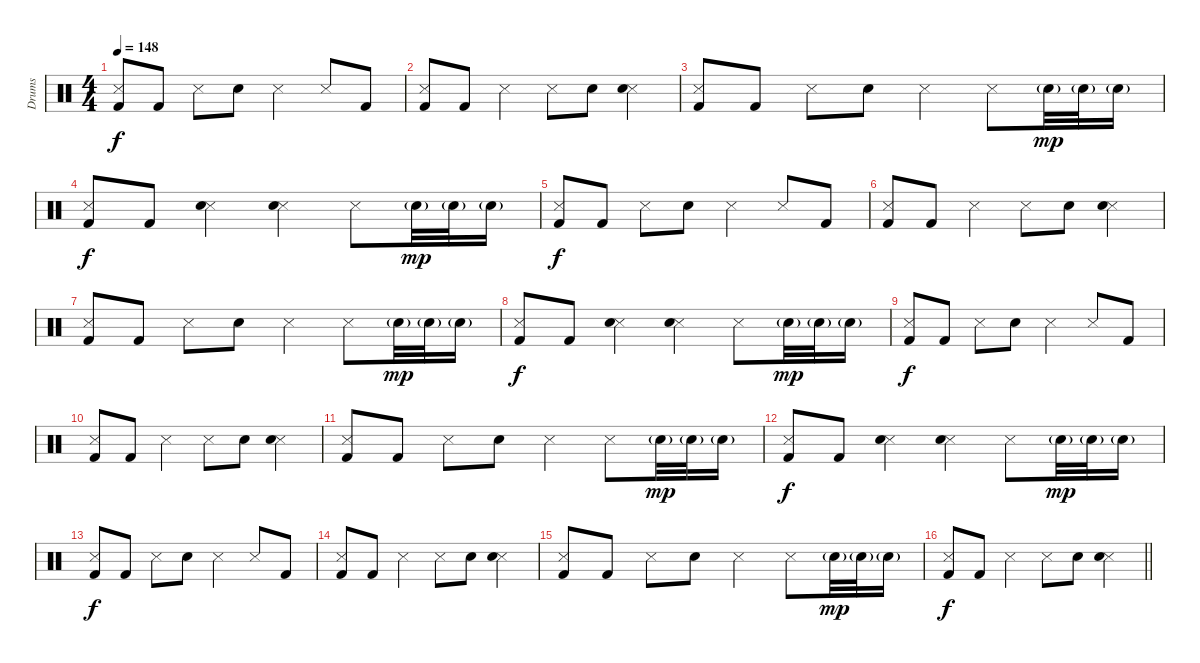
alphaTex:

\track ("Drums" "Drums") {instrument percussion}
\staff {score}
\articulation defaults
\ts (4 4)
\tempo 148
\clef neutral
\ks c
("Snare (side stick) 3" "Kick (hit) 2").8{dy f} "Kick (hit) 2".8 "Snare (side stick) 3".8 "Electric Snare (hit)".8 "Snare (side stick) 3".4 "Snare (side stick) 3".8 "Kick (hit) 2".8 |
("Snare (side stick) 3" "Kick (hit) 2").8 "Kick (hit) 2".8 "Snare (side stick) 3".4 "Snare (side stick) 3".8 "Electric Snare (hit)".8 ("Snare (side stick) 3" "Electric Snare (hit)").4 |
("Snare (side stick) 3" "Kick (hit) 2").8 "Kick (hit) 2".8 "Snare (side stick) 3".8 "Electric Snare (hit)".8 "Snare (side stick) 3".4 "Snare (side stick) 3".8 "Electric Snare (hit)"{g}.32{dy mp} "Electric Snare (hit)"{g}.32 "Electric Snare (hit)"{g}.16 |
("Snare (side stick) 3" "Kick (hit) 2").8{dy f} "Kick (hit) 2".8 ("Snare (side stick) 3" "Electric Snare (hit)").4 ("Snare (side stick) 3" "Electric Snare (hit)").4 "Snare (side stick) 3".8 "Electric Snare (hit)"{g}.32{dy mp} "Electric Snare (hit)"{g}.32 "Electric Snare (hit)"{g}.16 |
("Snare (side stick) 3" "Kick (hit) 2").8{dy f} "Kick (hit) 2".8 "Snare (side stick) 3".8 "Electric Snare (hit)".8 "Snare (side stick) 3".4 "Snare (side stick) 3".8 "Kick (hit) 2".8 |
("Snare (side stick) 3" "Kick (hit) 2").8 "Kick (hit) 2".8 "Snare (side stick) 3".4 "Snare (side stick) 3".8 "Electric Snare (hit)".8 ("Snare (side stick) 3" "Electric Snare (hit)").4 |
("Snare (side stick) 3" "Kick (hit) 2").8 "Kick (hit) 2".8 "Snare (side stick) 3".8 "Electric Snare (hit)".8 "Snare (side stick) 3".4 "Snare (side stick) 3".8 "Electric Snare (hit)"{g}.32{dy mp} "Electric Snare (hit)"{g}.32 "Electric Snare (hit)"{g}.16 |
("Snare (side stick) 3" "Kick (hit) 2").8{dy f} "Kick (hit) 2".8 ("Snare (side stick) 3" "Electric Snare (hit)").4 ("Snare (side stick) 3" "Electric Snare (hit)").4 "Snare (side stick) 3".8 "Electric Snare (hit)"{g}.32{dy mp} "Electric Snare (hit)"{g}.32 "Electric Snare (hit)"{g}.16 |
("Snare (side stick) 3" "Kick (hit) 2").8{dy f} "Kick (hit) 2".8 "Snare (side stick) 3".8 "Electric Snare (hit)".8 "Snare (side stick) 3".4 "Snare (side stick) 3".8 "Kick (hit) 2".8 |
("Snare (side stick) 3" "Kick (hit) 2").8 "Kick (hit) 2".8 "Snare (side stick) 3".4 "Snare (side stick) 3".8 "Electric Snare (hit)".8 ("Snare (side stick) 3" "Electric Snare (hit)").4 |
("Snare (side stick) 3" "Kick (hit) 2").8 "Kick (hit) 2".8 "Snare (side stick) 3".8 "Electric Snare (hit)".8 "Snare (side stick) 3".4 "Snare (side stick) 3".8 "Electric Snare (hit)"{g}.32{dy mp} "Electric Snare (hit)"{g}.32 "Electric Snare (hit)"{g}.16 |
("Snare (side stick) 3" "Kick (hit) 2").8{dy f} "Kick (hit) 2".8 ("Snare (side stick) 3" "Electric Snare (hit)").4 ("Snare (side stick) 3" "Electric Snare (hit)").4 "Snare (side stick) 3".8 "Electric Snare (hit)"{g}.32{dy mp} "Electric Snare (hit)"{g}.32 "Electric Snare (hit)"{g}.16 |
("Snare (side stick) 3" "Kick (hit) 2").8{dy f} "Kick (hit) 2".8 "Snare (side stick) 3".8 "Electric Snare (hit)".8 "Snare (side stick) 3".4 "Snare (side stick) 3".8 "Kick (hit) 2".8 |
("Snare (side stick) 3" "Kick (hit) 2").8 "Kick (hit) 2".8 "Snare (side stick) 3".4 "Snare (side stick) 3".8 "Electric Snare (hit)".8 ("Snare (side stick) 3" "Electric Snare (hit)").4 |
("Snare (side stick) 3" "Kick (hit) 2").8 "Kick (hit) 2".8 "Snare (side stick) 3".8 "Electric Snare (hit)".8 "Snare (side stick) 3".4 "Snare (side stick) 3".8 "Electric Snare (hit)"{g}.32{dy mp} "Electric Snare (hit)"{g}.32 "Electric Snare (hit)"{g}.16 |
\barLineRight lightlight
("Snare (side stick) 3" "Kick (hit) 2").8{dy f} "Kick (hit) 2".8 "Snare (side stick) 3".4 "Snare (side stick) 3".8 "Electric Snare (hit)".8 ("Snare (side stick) 3" "Electric Snare (hit)").4
